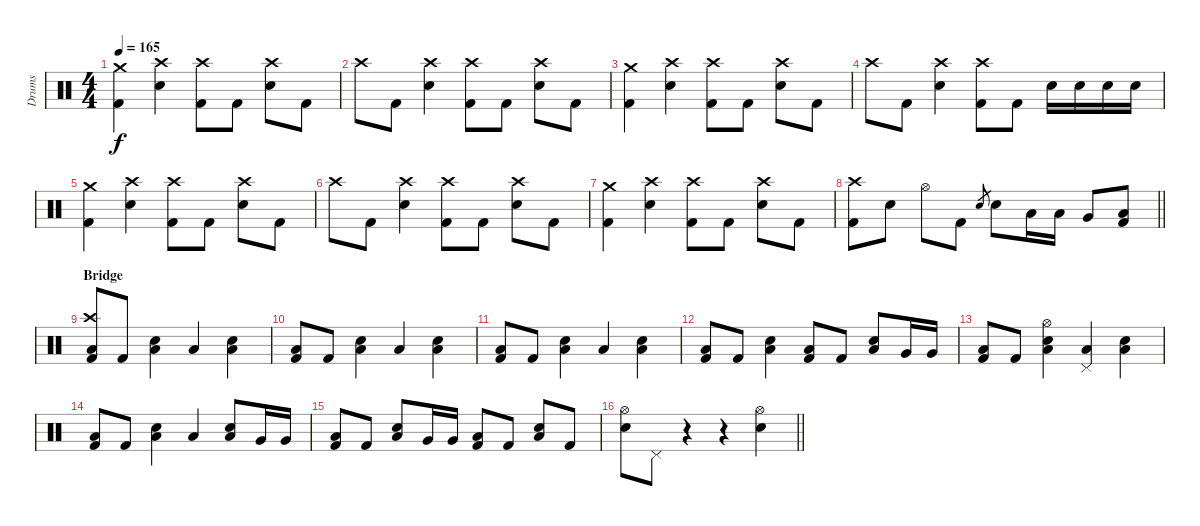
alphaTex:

\track ("Drums" "Drums") {instrument percussion}
\staff {score}
\articulation defaults
\ts (4 4)
\tempo 165
\clef neutral
\ks c
("Crash medium (hit)" "Kick (hit) 2").4{dy f} ("Crash high (hit)" "Electric Snare (hit)").4 ("Crash high (hit)" "Kick (hit) 2").8 "Kick (hit) 2".8 ("Crash high (hit)" "Electric Snare (hit)").8 "Kick (hit) 2".8 |
"Crash high (hit)".8 "Kick (hit) 2".8 ("Crash high (hit)" "Electric Snare (hit)").4 ("Crash high (hit)" "Kick (hit) 2").8 "Kick (hit) 2".8 ("Crash high (hit)" "Electric Snare (hit)").8 "Kick (hit) 2".8 |
("Crash medium (hit)" "Kick (hit) 2").4 ("Crash high (hit)" "Electric Snare (hit)").4 ("Crash high (hit)" "Kick (hit) 2").8 "Kick (hit) 2".8 ("Crash high (hit)" "Electric Snare (hit)").8 "Kick (hit) 2".8 |
"Crash high (hit)".8 "Kick (hit) 2".8 ("Crash high (hit)" "Electric Snare (hit)").4 ("Crash high (hit)" "Kick (hit) 2").8 "Kick (hit) 2".8 "Electric Snare (hit)".16 "Electric Snare (hit)".16 "Electric Snare (hit)".16 "Electric Snare (hit)".16 |
("Crash medium (hit)" "Kick (hit) 2").4 ("Crash high (hit)" "Electric Snare (hit)").4 ("Crash high (hit)" "Kick (hit) 2").8 "Kick (hit) 2".8 ("Crash high (hit)" "Electric Snare (hit)").8 "Kick (hit) 2".8 |
"Crash high (hit)".8 "Kick (hit) 2".8 ("Crash high (hit)" "Electric Snare (hit)").4 ("Crash high (hit)" "Kick (hit) 2").8 "Kick (hit) 2".8 ("Crash high (hit)" "Electric Snare (hit)").8 "Kick (hit) 2".8 |
("Crash medium (hit)" "Kick (hit) 2").4 ("Crash high (hit)" "Electric Snare (hit)").4 ("Crash high (hit)" "Kick (hit) 2").8 "Kick (hit) 2".8 ("Crash high (hit)" "Electric Snare (hit)").8 "Kick (hit) 2".8 |
\barLineRight lightlight
("Crash high (hit)" "Kick (hit) 2").8 "Electric Snare (hit)".8 "Hi-Hat (open)".8 "Kick (hit) 2".8 "Electric Snare (hit)".8{gr} "Electric Snare (hit)".8 "Low Tom (hit)".16 "Low Tom (hit)".16 "Very Low Tom (hit)".8 ("Low Floor Tom (hit)" "Kick (hit) 2").8 |
\section ("" "Bridge")
("Crash high (hit)" "Low Floor Tom (hit)" "Kick (hit) 2").8 "Kick (hit) 2".8 ("Electric Snare (hit)" "Low Floor Tom (hit)").4 "Low Floor Tom (hit)".4 ("Electric Snare (hit)" "Low Floor Tom (hit)").4 |
("Low Floor Tom (hit)" "Kick (hit) 2").8 "Kick (hit) 2".8 ("Electric Snare (hit)" "Low Floor Tom (hit)").4 "Low Floor Tom (hit)".4 ("Electric Snare (hit)" "Low Floor Tom (hit)").4 |
("Low Floor Tom (hit)" "Kick (hit) 2").8 "Kick (hit) 2".8 ("Electric Snare (hit)" "Low Floor Tom (hit)").4 "Low Floor Tom (hit)".4 ("Electric Snare (hit)" "Low Floor Tom (hit)").4 |
("Low Floor Tom (hit)" "Kick (hit) 2").8 "Kick (hit) 2".8 ("Electric Snare (hit)" "Low Floor Tom (hit)").4 ("Low Floor Tom (hit)" "Kick (hit) 2").8 "Kick (hit) 2".8 ("Electric Snare (hit)" "Low Floor Tom (hit)").8 "Very Low Tom (hit)".16 "Very Low Tom (hit)".16 |
("Low Floor Tom (hit)" "Kick (hit) 2").8 "Kick (hit) 2".8 ("Hi-Hat (open)" "Electric Snare (hit)" "Low Floor Tom (hit)").4 ("Pedal Hi-Hat (hit)" "Low Floor Tom (hit)").4 ("Electric Snare (hit)" "Low Floor Tom (hit)").4 |
("Low Floor Tom (hit)" "Kick (hit) 2").8 "Kick (hit) 2".8 ("Electric Snare (hit)" "Low Floor Tom (hit)").4 "Low Floor Tom (hit)".4 ("Electric Snare (hit)" "Low Floor Tom (hit)").8 "Very Low Tom (hit)".16 "Very Low Tom (hit)".16 |
("Low Floor Tom (hit)" "Kick (hit) 2").8 "Kick (hit) 2".8 ("Electric Snare (hit)" "Low Floor Tom (hit)").8 "Very Low Tom (hit)".16 "Very Low Tom (hit)".16 ("Low Floor Tom (hit)" "Kick (hit) 2").8 "Kick (hit) 2".8 ("Electric Snare (hit)" "Low Floor Tom (hit)").8 "Kick (hit) 2".8 |
\barLineRight lightlight
("Hi-Hat (open)" "Electric Snare (hit)").8 "Pedal Hi-Hat (hit)".8 r.4 r.4 ("Hi-Hat (open)" "Electric Snare (hit)").4
